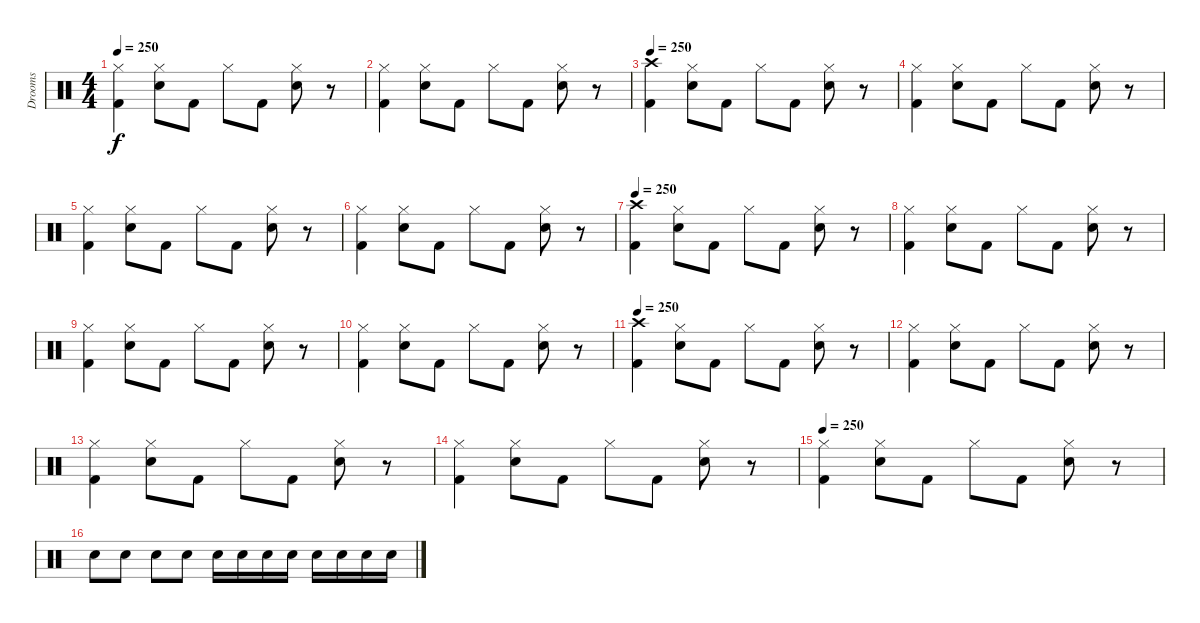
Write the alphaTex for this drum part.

\track ("Drooms" "Drooms") {instrument percussion}
\staff {score}
\articulation defaults
\ts (4 4)
\tempo 250
\clef neutral
\ks c
("Hi-Hat (closed)" "Kick (hit) 2").4{dy f} ("Hi-Hat (closed)" "Snare (hit) 2").8 "Kick (hit) 2".8 "Hi-Hat (closed)".8 "Kick (hit) 2".8 ("Hi-Hat (closed)" "Snare (hit) 2").8 r.8 |
("Hi-Hat (closed)" "Kick (hit) 2").4 ("Hi-Hat (closed)" "Snare (hit) 2").8 "Kick (hit) 2".8 "Hi-Hat (closed)".8 "Kick (hit) 2".8 ("Hi-Hat (closed)" "Snare (hit) 2").8 r.8 |
\tempo 250
("Crash high (hit)" "Kick (hit) 2").4 ("Hi-Hat (closed)" "Snare (hit) 2").8 "Kick (hit) 2".8 "Hi-Hat (closed)".8 "Kick (hit) 2".8 ("Hi-Hat (closed)" "Snare (hit) 2").8 r.8 |
("Hi-Hat (closed)" "Kick (hit) 2").4 ("Hi-Hat (closed)" "Snare (hit) 2").8 "Kick (hit) 2".8 "Hi-Hat (closed)".8 "Kick (hit) 2".8 ("Hi-Hat (closed)" "Snare (hit) 2").8 r.8 |
("Hi-Hat (closed)" "Kick (hit) 2").4 ("Hi-Hat (closed)" "Snare (hit) 2").8 "Kick (hit) 2".8 "Hi-Hat (closed)".8 "Kick (hit) 2".8 ("Hi-Hat (closed)" "Snare (hit) 2").8 r.8 |
("Hi-Hat (closed)" "Kick (hit) 2").4 ("Hi-Hat (closed)" "Snare (hit) 2").8 "Kick (hit) 2".8 "Hi-Hat (closed)".8 "Kick (hit) 2".8 ("Hi-Hat (closed)" "Snare (hit) 2").8 r.8 |
\tempo 250
("Crash high (hit)" "Kick (hit) 2").4 ("Hi-Hat (closed)" "Snare (hit) 2").8 "Kick (hit) 2".8 "Hi-Hat (closed)".8 "Kick (hit) 2".8 ("Hi-Hat (closed)" "Snare (hit) 2").8 r.8 |
("Hi-Hat (closed)" "Kick (hit) 2").4 ("Hi-Hat (closed)" "Snare (hit) 2").8 "Kick (hit) 2".8 "Hi-Hat (closed)".8 "Kick (hit) 2".8 ("Hi-Hat (closed)" "Snare (hit) 2").8 r.8 |
("Hi-Hat (closed)" "Kick (hit) 2").4 ("Hi-Hat (closed)" "Snare (hit) 2").8 "Kick (hit) 2".8 "Hi-Hat (closed)".8 "Kick (hit) 2".8 ("Hi-Hat (closed)" "Snare (hit) 2").8 r.8 |
("Hi-Hat (closed)" "Kick (hit) 2").4 ("Hi-Hat (closed)" "Snare (hit) 2").8 "Kick (hit) 2".8 "Hi-Hat (closed)".8 "Kick (hit) 2".8 ("Hi-Hat (closed)" "Snare (hit) 2").8 r.8 |
\tempo 250
("Crash high (hit)" "Kick (hit) 2").4 ("Hi-Hat (closed)" "Snare (hit) 2").8 "Kick (hit) 2".8 "Hi-Hat (closed)".8 "Kick (hit) 2".8 ("Hi-Hat (closed)" "Snare (hit) 2").8 r.8 |
("Hi-Hat (closed)" "Kick (hit) 2").4 ("Hi-Hat (closed)" "Snare (hit) 2").8 "Kick (hit) 2".8 "Hi-Hat (closed)".8 "Kick (hit) 2".8 ("Hi-Hat (closed)" "Snare (hit) 2").8 r.8 |
("Hi-Hat (closed)" "Kick (hit) 2").4 ("Hi-Hat (closed)" "Snare (hit) 2").8 "Kick (hit) 2".8 "Hi-Hat (closed)".8 "Kick (hit) 2".8 ("Hi-Hat (closed)" "Snare (hit) 2").8 r.8 |
("Hi-Hat (closed)" "Kick (hit) 2").4 ("Hi-Hat (closed)" "Snare (hit) 2").8 "Kick (hit) 2".8 "Hi-Hat (closed)".8 "Kick (hit) 2".8 ("Hi-Hat (closed)" "Snare (hit) 2").8 r.8 |
\tempo 250
("Hi-Hat (closed)" "Kick (hit) 2").4 ("Hi-Hat (closed)" "Snare (hit) 2").8 "Kick (hit) 2".8 "Hi-Hat (closed)".8 "Kick (hit) 2".8 ("Hi-Hat (closed)" "Snare (hit) 2").8 r.8 |
"Snare (hit) 2".8 "Snare (hit) 2".8 "Snare (hit) 2".8 "Snare (hit) 2".8 "Snare (hit) 2".16 "Snare (hit) 2".16 "Snare (hit) 2".16 "Snare (hit) 2".16 "Snare (hit) 2".16 "Snare (hit) 2".16 "Snare (hit) 2".16 "Snare (hit) 2".16
